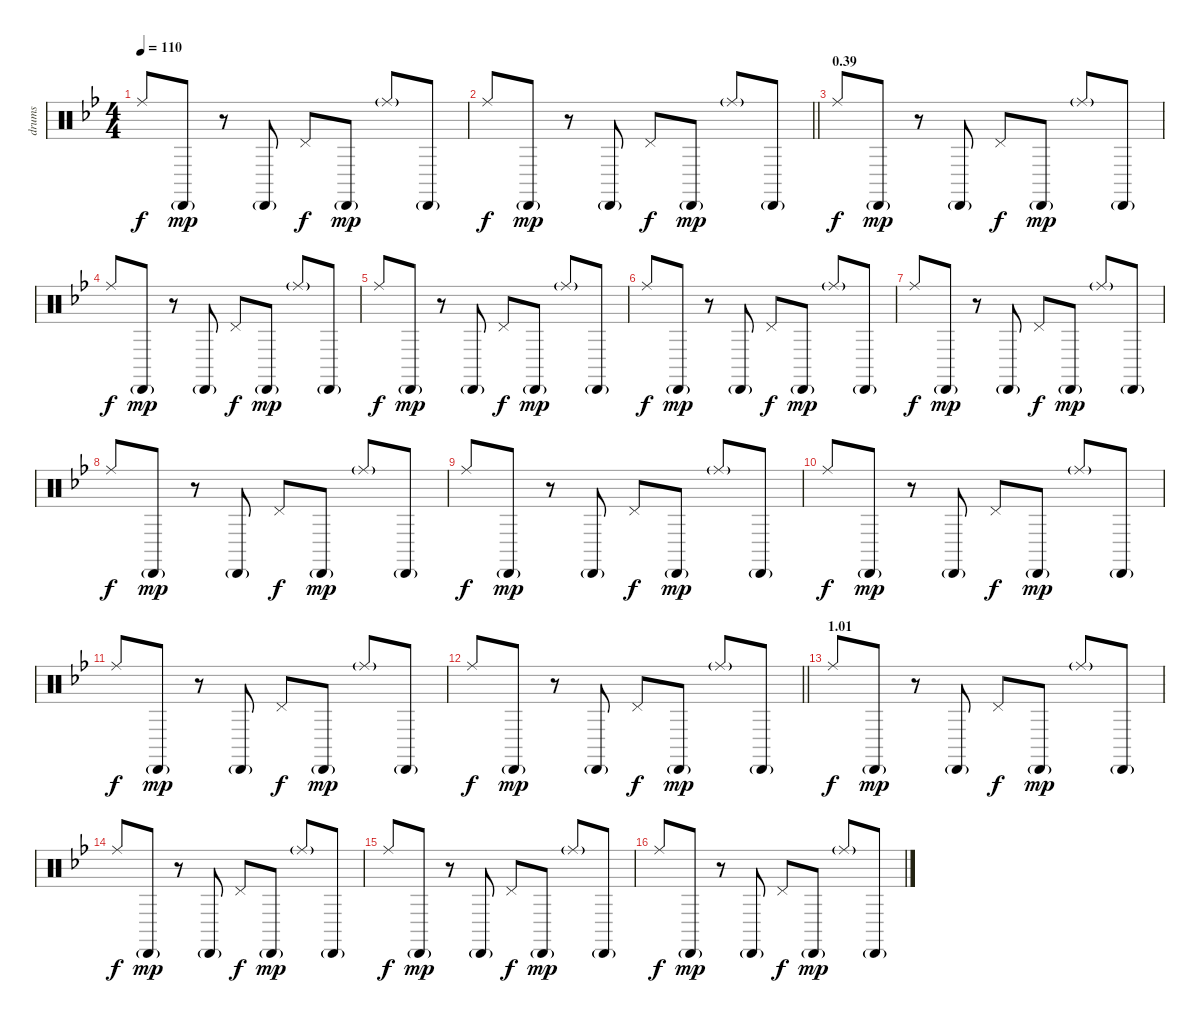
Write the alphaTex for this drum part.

\track ("drums" "drums") {instrument percussion}
\staff {score}
\articulation defaults
\ts (4 4)
\tempo 110
\clef neutral
\ks bb "Ride (middle)".8{dy f} "Cabasa (hit)"{g}.8{dy mp}
r.8 "Cabasa (hit)"{g}.8 "Pedal Hi-Hat (hit)".8{dy f} "Cabasa (hit)"{g}.8{dy mp} "Ride (middle)"{g}.8 "Cabasa (hit)"{g}.8 |
\barLineRight lightlight "Ride (middle)".8{dy f} "Cabasa (hit)"{g}.8{dy mp}
r.8 "Cabasa (hit)"{g}.8 "Pedal Hi-Hat (hit)".8{dy f} "Cabasa (hit)"{g}.8{dy mp} "Ride (middle)"{g}.8 "Cabasa (hit)"{g}.8 |
\section ("" "0.39")
"Ride (middle)".8{dy f} "Cabasa (hit)"{g}.8{dy mp} r.8 "Cabasa (hit)"{g}.8 "Pedal Hi-Hat (hit)".8{dy f} "Cabasa (hit)"{g}.8{dy mp} "Ride (middle)"{g}.8 "Cabasa (hit)"{g}.8 |
"Ride (middle)".8{dy f} "Cabasa (hit)"{g}.8{dy mp} r.8 "Cabasa (hit)"{g}.8 "Pedal Hi-Hat (hit)".8{dy f} "Cabasa (hit)"{g}.8{dy mp} "Ride (middle)"{g}.8 "Cabasa (hit)"{g}.8 |
"Ride (middle)".8{dy f} "Cabasa (hit)"{g}.8{dy mp} r.8 "Cabasa (hit)"{g}.8 "Pedal Hi-Hat (hit)".8{dy f} "Cabasa (hit)"{g}.8{dy mp} "Ride (middle)"{g}.8 "Cabasa (hit)"{g}.8 |
"Ride (middle)".8{dy f} "Cabasa (hit)"{g}.8{dy mp} r.8 "Cabasa (hit)"{g}.8 "Pedal Hi-Hat (hit)".8{dy f} "Cabasa (hit)"{g}.8{dy mp} "Ride (middle)"{g}.8 "Cabasa (hit)"{g}.8 |
"Ride (middle)".8{dy f} "Cabasa (hit)"{g}.8{dy mp} r.8 "Cabasa (hit)"{g}.8 "Pedal Hi-Hat (hit)".8{dy f} "Cabasa (hit)"{g}.8{dy mp} "Ride (middle)"{g}.8 "Cabasa (hit)"{g}.8 |
"Ride (middle)".8{dy f} "Cabasa (hit)"{g}.8{dy mp} r.8 "Cabasa (hit)"{g}.8 "Pedal Hi-Hat (hit)".8{dy f} "Cabasa (hit)"{g}.8{dy mp} "Ride (middle)"{g}.8 "Cabasa (hit)"{g}.8 |
"Ride (middle)".8{dy f} "Cabasa (hit)"{g}.8{dy mp} r.8 "Cabasa (hit)"{g}.8 "Pedal Hi-Hat (hit)".8{dy f} "Cabasa (hit)"{g}.8{dy mp} "Ride (middle)"{g}.8 "Cabasa (hit)"{g}.8 |
"Ride (middle)".8{dy f} "Cabasa (hit)"{g}.8{dy mp} r.8 "Cabasa (hit)"{g}.8 "Pedal Hi-Hat (hit)".8{dy f} "Cabasa (hit)"{g}.8{dy mp} "Ride (middle)"{g}.8 "Cabasa (hit)"{g}.8 |
"Ride (middle)".8{dy f} "Cabasa (hit)"{g}.8{dy mp} r.8 "Cabasa (hit)"{g}.8 "Pedal Hi-Hat (hit)".8{dy f} "Cabasa (hit)"{g}.8{dy mp} "Ride (middle)"{g}.8 "Cabasa (hit)"{g}.8 |
\barLineRight lightlight "Ride (middle)".8{dy f} "Cabasa (hit)"{g}.8{dy mp}
r.8 "Cabasa (hit)"{g}.8 "Pedal Hi-Hat (hit)".8{dy f} "Cabasa (hit)"{g}.8{dy mp} "Ride (middle)"{g}.8 "Cabasa (hit)"{g}.8 |
\section ("" "1.01")
"Ride (middle)".8{dy f} "Cabasa (hit)"{g}.8{dy mp} r.8 "Cabasa (hit)"{g}.8 "Pedal Hi-Hat (hit)".8{dy f} "Cabasa (hit)"{g}.8{dy mp} "Ride (middle)"{g}.8 "Cabasa (hit)"{g}.8 |
"Ride (middle)".8{dy f} "Cabasa (hit)"{g}.8{dy mp} r.8 "Cabasa (hit)"{g}.8 "Pedal Hi-Hat (hit)".8{dy f} "Cabasa (hit)"{g}.8{dy mp} "Ride (middle)"{g}.8 "Cabasa (hit)"{g}.8 |
"Ride (middle)".8{dy f} "Cabasa (hit)"{g}.8{dy mp} r.8 "Cabasa (hit)"{g}.8 "Pedal Hi-Hat (hit)".8{dy f} "Cabasa (hit)"{g}.8{dy mp} "Ride (middle)"{g}.8 "Cabasa (hit)"{g}.8 |
"Ride (middle)".8{dy f} "Cabasa (hit)"{g}.8{dy mp} r.8 "Cabasa (hit)"{g}.8 "Pedal Hi-Hat (hit)".8{dy f} "Cabasa (hit)"{g}.8{dy mp} "Ride (middle)"{g}.8 "Cabasa (hit)"{g}.8
